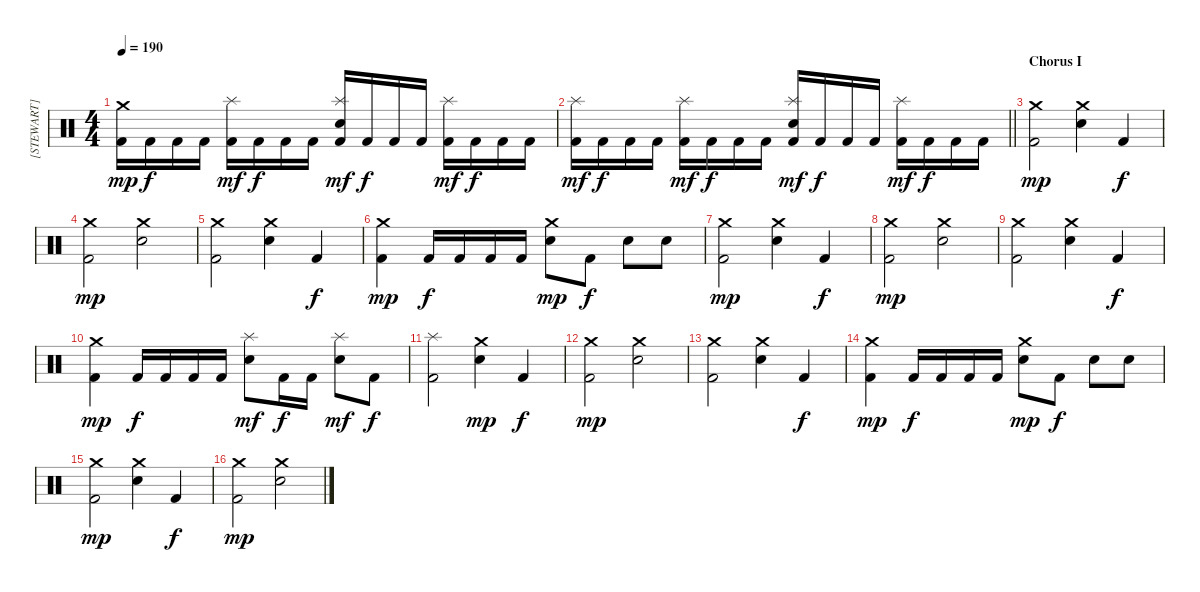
\track ("[STEWART]" "[STEWART]") {instrument percussion}
\staff {score}
\articulation defaults
\ts (4 4)
\tempo 190
\clef neutral
\ks c
("Crash medium (hit)" "Kick (hit) 2").16{dy mp} "Kick (hit) 2".16{dy f} "Kick (hit) 2".16 "Kick (hit) 2".16 ("Splash (hit)" "Kick (hit) 2").16{dy mf} "Kick (hit) 2".16{dy f} "Kick (hit) 2".16 "Kick (hit) 2".16 ("Splash (hit)" "Electric Snare (hit)" "Kick (hit) 2").16{dy mf} "Kick (hit) 2".16{dy f} "Kick (hit) 2".16 "Kick (hit) 2".16 ("Splash (hit)" "Kick (hit) 2").16{dy mf} "Kick (hit) 2".16{dy f} "Kick (hit) 2".16 "Kick (hit) 2".16 |
\barLineRight lightlight
("Splash (hit)" "Kick (hit) 2").16{dy mf} "Kick (hit) 2".16{dy f} "Kick (hit) 2".16 "Kick (hit) 2".16 ("Splash (hit)" "Kick (hit) 2").16{dy mf} "Kick (hit) 2".16{dy f} "Kick (hit) 2".16 "Kick (hit) 2".16 ("Splash (hit)" "Electric Snare (hit)" "Kick (hit) 2").16{dy mf} "Kick (hit) 2".16{dy f} "Kick (hit) 2".16 "Kick (hit) 2".16 ("Splash (hit)" "Kick (hit) 2").16{dy mf} "Kick (hit) 2".16{dy f} "Kick (hit) 2".16 "Kick (hit) 2".16 |
\section ("" "Chorus I")
("Crash medium (hit)" "Kick (hit) 2").2{dy mp} ("Crash medium (hit)" "Electric Snare (hit)").4 "Kick (hit) 2".4{dy f} |
("Crash medium (hit)" "Kick (hit) 2").2{dy mp} ("Crash medium (hit)" "Electric Snare (hit)").2 |
("Crash medium (hit)" "Kick (hit) 2").2 ("Crash medium (hit)" "Electric Snare (hit)").4 "Kick (hit) 2".4{dy f} |
("Crash medium (hit)" "Kick (hit) 2").4{dy mp} "Kick (hit) 2".16{dy f} "Kick (hit) 2".16 "Kick (hit) 2".16 "Kick (hit) 2".16 ("Crash medium (hit)" "Electric Snare (hit)").8{dy mp} "Kick (hit) 2".8{dy f} "Electric Snare (hit)".8 "Electric Snare (hit)".8 |
("Crash medium (hit)" "Kick (hit) 2").2{dy mp} ("Crash medium (hit)" "Electric Snare (hit)").4 "Kick (hit) 2".4{dy f} |
("Crash medium (hit)" "Kick (hit) 2").2{dy mp} ("Crash medium (hit)" "Electric Snare (hit)").2 |
("Crash medium (hit)" "Kick (hit) 2").2 ("Crash medium (hit)" "Electric Snare (hit)").4 "Kick (hit) 2".4{dy f} |
("Crash medium (hit)" "Kick (hit) 2").4{dy mp} "Kick (hit) 2".16{dy f} "Kick (hit) 2".16 "Kick (hit) 2".16 "Kick (hit) 2".16 ("Splash (hit)" "Electric Snare (hit)").8{dy mf} "Kick (hit) 2".16{dy f} "Kick (hit) 2".16 ("Splash (hit)" "Electric Snare (hit)").8{dy mf} "Kick (hit) 2".8{dy f} |
("Splash (hit)" "Kick (hit) 2").2 ("Crash medium (hit)" "Electric Snare (hit)").4{dy mp} "Kick (hit) 2".4{dy f} |
("Crash medium (hit)" "Kick (hit) 2").2{dy mp} ("Crash medium (hit)" "Electric Snare (hit)").2 |
("Crash medium (hit)" "Kick (hit) 2").2 ("Crash medium (hit)" "Electric Snare (hit)").4 "Kick (hit) 2".4{dy f} |
("Crash medium (hit)" "Kick (hit) 2").4{dy mp} "Kick (hit) 2".16{dy f} "Kick (hit) 2".16 "Kick (hit) 2".16 "Kick (hit) 2".16 ("Crash medium (hit)" "Electric Snare (hit)").8{dy mp} "Kick (hit) 2".8{dy f} "Electric Snare (hit)".8 "Electric Snare (hit)".8 |
("Crash medium (hit)" "Kick (hit) 2").2{dy mp} ("Crash medium (hit)" "Electric Snare (hit)").4 "Kick (hit) 2".4{dy f} |
("Crash medium (hit)" "Kick (hit) 2").2{dy mp} ("Crash medium (hit)" "Electric Snare (hit)").2
